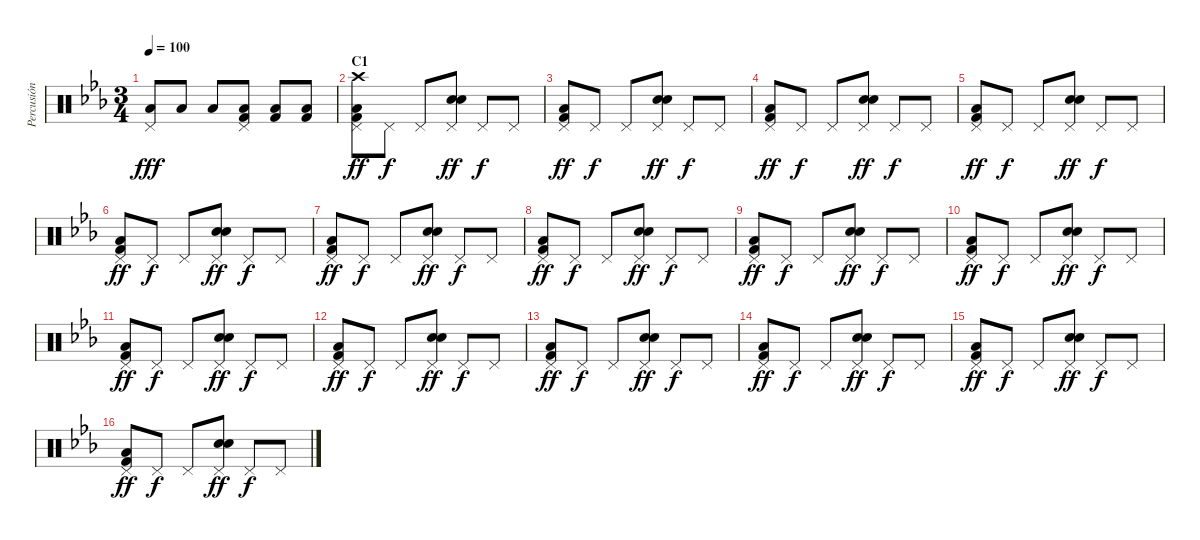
\track ("Percusión" "Percusión") {instrument percussion}
\staff {score}
\articulation defaults
\ts (3 4)
\tempo 100
\clef neutral
\ks eb
("Low Floor Tom (hit)" "Pedal Hi-Hat (hit)").8{dy fff} "Low Floor Tom (hit)".8 "Low Floor Tom (hit)".8 ("Kick (hit) 2" "Low Floor Tom (hit)" "Pedal Hi-Hat (hit)").8 ("Kick (hit) 2" "Low Floor Tom (hit)").8 ("Kick (hit) 2" "Low Floor Tom (hit)").8 |
\section ("" "C1")
("Pedal Hi-Hat (hit)" "Low Floor Tom (hit)" "Kick (hit) 2" "Crash high (hit)").8{dy ff} "Pedal Hi-Hat (hit)".8{dy f} "Pedal Hi-Hat (hit)".8 ("Pedal Hi-Hat (hit)" "Electric Snare (hit)" "Snare (hit) 2").8{dy ff} "Pedal Hi-Hat (hit)".8{dy f} "Pedal Hi-Hat (hit)".8 |
("Pedal Hi-Hat (hit)" "Low Floor Tom (hit)" "Kick (hit) 2").8{dy ff} "Pedal Hi-Hat (hit)".8{dy f} "Pedal Hi-Hat (hit)".8 ("Pedal Hi-Hat (hit)" "Electric Snare (hit)" "Snare (hit) 2").8{dy ff} "Pedal Hi-Hat (hit)".8{dy f} "Pedal Hi-Hat (hit)".8 |
("Pedal Hi-Hat (hit)" "Low Floor Tom (hit)" "Kick (hit) 2").8{dy ff} "Pedal Hi-Hat (hit)".8{dy f} "Pedal Hi-Hat (hit)".8 ("Pedal Hi-Hat (hit)" "Electric Snare (hit)" "Snare (hit) 2").8{dy ff} "Pedal Hi-Hat (hit)".8{dy f} "Pedal Hi-Hat (hit)".8 |
("Pedal Hi-Hat (hit)" "Low Floor Tom (hit)" "Kick (hit) 2").8{dy ff} "Pedal Hi-Hat (hit)".8{dy f} "Pedal Hi-Hat (hit)".8 ("Pedal Hi-Hat (hit)" "Electric Snare (hit)" "Snare (hit) 2").8{dy ff} "Pedal Hi-Hat (hit)".8{dy f} "Pedal Hi-Hat (hit)".8 |
("Pedal Hi-Hat (hit)" "Low Floor Tom (hit)" "Kick (hit) 2").8{dy ff} "Pedal Hi-Hat (hit)".8{dy f} "Pedal Hi-Hat (hit)".8 ("Pedal Hi-Hat (hit)" "Electric Snare (hit)" "Snare (hit) 2").8{dy ff} "Pedal Hi-Hat (hit)".8{dy f} "Pedal Hi-Hat (hit)".8 |
("Pedal Hi-Hat (hit)" "Low Floor Tom (hit)" "Kick (hit) 2").8{dy ff} "Pedal Hi-Hat (hit)".8{dy f} "Pedal Hi-Hat (hit)".8 ("Pedal Hi-Hat (hit)" "Electric Snare (hit)" "Snare (hit) 2").8{dy ff} "Pedal Hi-Hat (hit)".8{dy f} "Pedal Hi-Hat (hit)".8 |
("Pedal Hi-Hat (hit)" "Low Floor Tom (hit)" "Kick (hit) 2").8{dy ff} "Pedal Hi-Hat (hit)".8{dy f} "Pedal Hi-Hat (hit)".8 ("Pedal Hi-Hat (hit)" "Electric Snare (hit)" "Snare (hit) 2").8{dy ff} "Pedal Hi-Hat (hit)".8{dy f} "Pedal Hi-Hat (hit)".8 |
("Pedal Hi-Hat (hit)" "Low Floor Tom (hit)" "Kick (hit) 2").8{dy ff} "Pedal Hi-Hat (hit)".8{dy f} "Pedal Hi-Hat (hit)".8 ("Pedal Hi-Hat (hit)" "Electric Snare (hit)" "Snare (hit) 2").8{dy ff} "Pedal Hi-Hat (hit)".8{dy f} "Pedal Hi-Hat (hit)".8 |
("Pedal Hi-Hat (hit)" "Low Floor Tom (hit)" "Kick (hit) 2").8{dy ff} "Pedal Hi-Hat (hit)".8{dy f} "Pedal Hi-Hat (hit)".8 ("Pedal Hi-Hat (hit)" "Electric Snare (hit)" "Snare (hit) 2").8{dy ff} "Pedal Hi-Hat (hit)".8{dy f} "Pedal Hi-Hat (hit)".8 |
("Pedal Hi-Hat (hit)" "Low Floor Tom (hit)" "Kick (hit) 2").8{dy ff} "Pedal Hi-Hat (hit)".8{dy f} "Pedal Hi-Hat (hit)".8 ("Pedal Hi-Hat (hit)" "Electric Snare (hit)" "Snare (hit) 2").8{dy ff} "Pedal Hi-Hat (hit)".8{dy f} "Pedal Hi-Hat (hit)".8 |
("Pedal Hi-Hat (hit)" "Low Floor Tom (hit)" "Kick (hit) 2").8{dy ff} "Pedal Hi-Hat (hit)".8{dy f} "Pedal Hi-Hat (hit)".8 ("Pedal Hi-Hat (hit)" "Electric Snare (hit)" "Snare (hit) 2").8{dy ff} "Pedal Hi-Hat (hit)".8{dy f} "Pedal Hi-Hat (hit)".8 |
("Pedal Hi-Hat (hit)" "Low Floor Tom (hit)" "Kick (hit) 2").8{dy ff} "Pedal Hi-Hat (hit)".8{dy f} "Pedal Hi-Hat (hit)".8 ("Pedal Hi-Hat (hit)" "Electric Snare (hit)" "Snare (hit) 2").8{dy ff} "Pedal Hi-Hat (hit)".8{dy f} "Pedal Hi-Hat (hit)".8 |
("Pedal Hi-Hat (hit)" "Low Floor Tom (hit)" "Kick (hit) 2").8{dy ff} "Pedal Hi-Hat (hit)".8{dy f} "Pedal Hi-Hat (hit)".8 ("Pedal Hi-Hat (hit)" "Electric Snare (hit)" "Snare (hit) 2").8{dy ff} "Pedal Hi-Hat (hit)".8{dy f} "Pedal Hi-Hat (hit)".8 |
("Pedal Hi-Hat (hit)" "Low Floor Tom (hit)" "Kick (hit) 2").8{dy ff} "Pedal Hi-Hat (hit)".8{dy f} "Pedal Hi-Hat (hit)".8 ("Pedal Hi-Hat (hit)" "Electric Snare (hit)" "Snare (hit) 2").8{dy ff} "Pedal Hi-Hat (hit)".8{dy f} "Pedal Hi-Hat (hit)".8 |
("Pedal Hi-Hat (hit)" "Low Floor Tom (hit)" "Kick (hit) 2").8{dy ff} "Pedal Hi-Hat (hit)".8{dy f} "Pedal Hi-Hat (hit)".8 ("Pedal Hi-Hat (hit)" "Electric Snare (hit)" "Snare (hit) 2").8{dy ff} "Pedal Hi-Hat (hit)".8{dy f} "Pedal Hi-Hat (hit)".8
